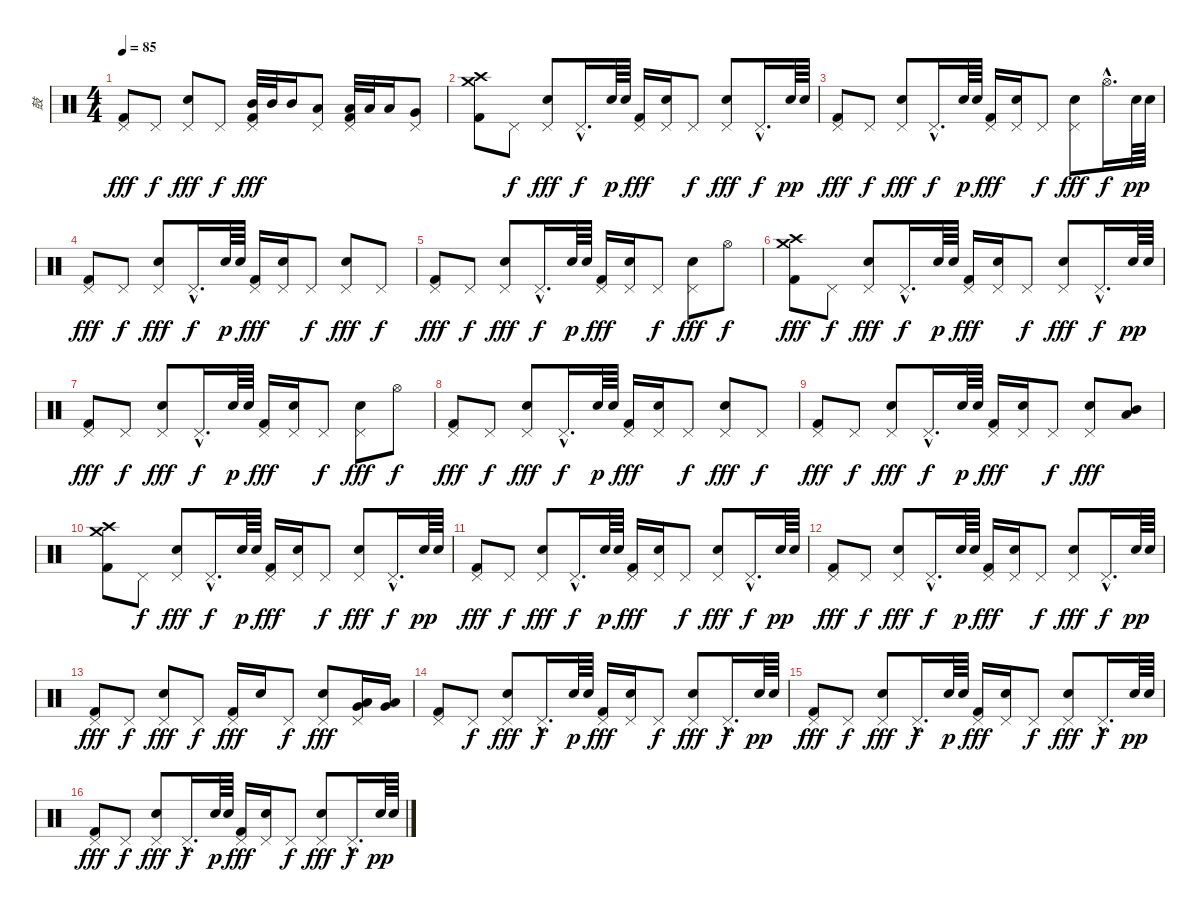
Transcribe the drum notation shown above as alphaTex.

\track ("鼓" "鼓") {instrument percussion}
\staff {score}
\articulation defaults
\ts (4 4)
\tempo 85
\clef neutral
\ks c
("Pedal Hi-Hat (hit)" "Kick (hit) 2").8{dy fff} "Pedal Hi-Hat (hit)".8{dy f} ("Pedal Hi-Hat (hit)" "Snare (hit) 2").8{dy fff} "Pedal Hi-Hat (hit)".8{dy f} ("Pedal Hi-Hat (hit)" "Mid Tom (hit)" "Kick (hit) 2").32{dy fff} "Mid Tom (hit)".32 "Mid Tom (hit)".16 ("Pedal Hi-Hat (hit)" "Low Tom (hit)").8 ("Pedal Hi-Hat (hit)" "Low Tom (hit)" "Kick (hit) 2").32 "Low Tom (hit)".32 "Low Tom (hit)".16 ("Pedal Hi-Hat (hit)" "Very Low Tom (hit)").8 |
("Crash high (hit)" "Crash medium (hit)" "Kick (hit) 2").8 "Pedal Hi-Hat (hit)".8{dy f} ("Pedal Hi-Hat (hit)" "Snare (hit) 2").8{dy fff} "Pedal Hi-Hat (hit)"{hac}.16{d dy f} "Snare (hit) 2".64{dy p} "Snare (hit) 2".64 ("Pedal Hi-Hat (hit)" "Kick (hit) 2").16{dy fff} ("Pedal Hi-Hat (hit)" "Snare (hit) 2").16 "Pedal Hi-Hat (hit)".8{dy f} ("Pedal Hi-Hat (hit)" "Snare (hit) 2").8{dy fff} "Pedal Hi-Hat (hit)"{hac}.16{d dy f} "Snare (hit) 2".64{dy pp} "Snare (hit) 2".64 |
("Pedal Hi-Hat (hit)" "Kick (hit) 2").8{dy fff} "Pedal Hi-Hat (hit)".8{dy f} ("Pedal Hi-Hat (hit)" "Snare (hit) 2").8{dy fff} "Pedal Hi-Hat (hit)"{hac}.16{d dy f} "Snare (hit) 2".64{dy p} "Snare (hit) 2".64 ("Pedal Hi-Hat (hit)" "Kick (hit) 2").16{dy fff} ("Pedal Hi-Hat (hit)" "Snare (hit) 2").16 "Pedal Hi-Hat (hit)".8{dy f} ("Pedal Hi-Hat (hit)" "Snare (hit) 2").8{dy fff} "Hi-Hat (open)"{hac}.16{d dy f} "Snare (hit) 2".64{dy pp} "Snare (hit) 2".64 |
("Pedal Hi-Hat (hit)" "Kick (hit) 2").8{dy fff} "Pedal Hi-Hat (hit)".8{dy f} ("Pedal Hi-Hat (hit)" "Snare (hit) 2").8{dy fff} "Pedal Hi-Hat (hit)"{hac}.16{d dy f} "Snare (hit) 2".64{dy p} "Snare (hit) 2".64 ("Pedal Hi-Hat (hit)" "Kick (hit) 2").16{dy fff} ("Pedal Hi-Hat (hit)" "Snare (hit) 2").16 "Pedal Hi-Hat (hit)".8{dy f} ("Pedal Hi-Hat (hit)" "Snare (hit) 2").8{dy fff} "Pedal Hi-Hat (hit)".8{dy f} |
("Pedal Hi-Hat (hit)" "Kick (hit) 2").8{dy fff} "Pedal Hi-Hat (hit)".8{dy f} ("Pedal Hi-Hat (hit)" "Snare (hit) 2").8{dy fff} "Pedal Hi-Hat (hit)"{hac}.16{d dy f} "Snare (hit) 2".64{dy p} "Snare (hit) 2".64 ("Pedal Hi-Hat (hit)" "Kick (hit) 2").16{dy fff} ("Pedal Hi-Hat (hit)" "Snare (hit) 2").16 "Pedal Hi-Hat (hit)".8{dy f} ("Pedal Hi-Hat (hit)" "Snare (hit) 2").8{dy fff} "Hi-Hat (open)".8{dy f} |
("Crash high (hit)" "Crash medium (hit)" "Kick (hit) 2").8{dy fff} "Pedal Hi-Hat (hit)".8{dy f} ("Pedal Hi-Hat (hit)" "Snare (hit) 2").8{dy fff} "Pedal Hi-Hat (hit)"{hac}.16{d dy f} "Snare (hit) 2".64{dy p} "Snare (hit) 2".64 ("Pedal Hi-Hat (hit)" "Kick (hit) 2").16{dy fff} ("Pedal Hi-Hat (hit)" "Snare (hit) 2").16 "Pedal Hi-Hat (hit)".8{dy f} ("Pedal Hi-Hat (hit)" "Snare (hit) 2").8{dy fff} "Pedal Hi-Hat (hit)"{hac}.16{d dy f} "Snare (hit) 2".64{dy pp} "Snare (hit) 2".64 |
("Pedal Hi-Hat (hit)" "Kick (hit) 2").8{dy fff} "Pedal Hi-Hat (hit)".8{dy f} ("Pedal Hi-Hat (hit)" "Snare (hit) 2").8{dy fff} "Pedal Hi-Hat (hit)"{hac}.16{d dy f} "Snare (hit) 2".64{dy p} "Snare (hit) 2".64 ("Pedal Hi-Hat (hit)" "Kick (hit) 2").16{dy fff} ("Pedal Hi-Hat (hit)" "Snare (hit) 2").16 "Pedal Hi-Hat (hit)".8{dy f} ("Pedal Hi-Hat (hit)" "Snare (hit) 2").8{dy fff} "Hi-Hat (open)".8{dy f} |
("Pedal Hi-Hat (hit)" "Kick (hit) 2").8{dy fff} "Pedal Hi-Hat (hit)".8{dy f} ("Pedal Hi-Hat (hit)" "Snare (hit) 2").8{dy fff} "Pedal Hi-Hat (hit)"{hac}.16{d dy f} "Snare (hit) 2".64{dy p} "Snare (hit) 2".64 ("Pedal Hi-Hat (hit)" "Kick (hit) 2").16{dy fff} ("Pedal Hi-Hat (hit)" "Snare (hit) 2").16 "Pedal Hi-Hat (hit)".8{dy f} ("Pedal Hi-Hat (hit)" "Snare (hit) 2").8{dy fff} "Pedal Hi-Hat (hit)".8{dy f} |
("Pedal Hi-Hat (hit)" "Kick (hit) 2").8{dy fff} "Pedal Hi-Hat (hit)".8{dy f} ("Pedal Hi-Hat (hit)" "Snare (hit) 2").8{dy fff} "Pedal Hi-Hat (hit)"{hac}.16{d dy f} "Snare (hit) 2".64{dy p} "Snare (hit) 2".64 ("Pedal Hi-Hat (hit)" "Kick (hit) 2").16{dy fff} ("Pedal Hi-Hat (hit)" "Snare (hit) 2").16 "Pedal Hi-Hat (hit)".8{dy f} ("Pedal Hi-Hat (hit)" "Snare (hit) 2").8{dy fff} ("Mid Tom (hit)" "Low Tom (hit)").8 |
("Crash high (hit)" "Crash medium (hit)" "Kick (hit) 2").8 "Pedal Hi-Hat (hit)".8{dy f} ("Pedal Hi-Hat (hit)" "Snare (hit) 2").8{dy fff} "Pedal Hi-Hat (hit)"{hac}.16{d dy f} "Snare (hit) 2".64{dy p} "Snare (hit) 2".64 ("Pedal Hi-Hat (hit)" "Kick (hit) 2").16{dy fff} ("Pedal Hi-Hat (hit)" "Snare (hit) 2").16 "Pedal Hi-Hat (hit)".8{dy f} ("Pedal Hi-Hat (hit)" "Snare (hit) 2").8{dy fff} "Pedal Hi-Hat (hit)"{hac}.16{d dy f} "Snare (hit) 2".64{dy pp} "Snare (hit) 2".64 |
("Pedal Hi-Hat (hit)" "Kick (hit) 2").8{dy fff} "Pedal Hi-Hat (hit)".8{dy f} ("Pedal Hi-Hat (hit)" "Snare (hit) 2").8{dy fff} "Pedal Hi-Hat (hit)"{hac}.16{d dy f} "Snare (hit) 2".64{dy p} "Snare (hit) 2".64 ("Pedal Hi-Hat (hit)" "Kick (hit) 2").16{dy fff} ("Pedal Hi-Hat (hit)" "Snare (hit) 2").16 "Pedal Hi-Hat (hit)".8{dy f} ("Pedal Hi-Hat (hit)" "Snare (hit) 2").8{dy fff} "Pedal Hi-Hat (hit)"{hac}.16{d dy f} "Snare (hit) 2".64{dy pp} "Snare (hit) 2".64 |
("Pedal Hi-Hat (hit)" "Kick (hit) 2").8{dy fff} "Pedal Hi-Hat (hit)".8{dy f} ("Pedal Hi-Hat (hit)" "Snare (hit) 2").8{dy fff} "Pedal Hi-Hat (hit)"{hac}.16{d dy f} "Snare (hit) 2".64{dy p} "Snare (hit) 2".64 ("Pedal Hi-Hat (hit)" "Kick (hit) 2").16{dy fff} ("Pedal Hi-Hat (hit)" "Snare (hit) 2").16 "Pedal Hi-Hat (hit)".8{dy f} ("Pedal Hi-Hat (hit)" "Snare (hit) 2").8{dy fff} "Pedal Hi-Hat (hit)"{hac}.16{d dy f} "Snare (hit) 2".64{dy pp} "Snare (hit) 2".64 |
("Pedal Hi-Hat (hit)" "Kick (hit) 2").8{dy fff} "Pedal Hi-Hat (hit)".8{dy f} ("Pedal Hi-Hat (hit)" "Snare (hit) 2").8{dy fff} "Pedal Hi-Hat (hit)".8{dy f} ("Pedal Hi-Hat (hit)" "Kick (hit) 2").16{dy fff} "Snare (hit) 2".16 "Pedal Hi-Hat (hit)".8{dy f} ("Pedal Hi-Hat (hit)" "Snare (hit) 2").8{dy fff} ("Pedal Hi-Hat (hit)" "Low Tom (hit)" "Very Low Tom (hit)").16 ("Low Tom (hit)" "Very Low Tom (hit)").16 |
("Pedal Hi-Hat (hit)" "Kick (hit) 2").8 "Pedal Hi-Hat (hit)".8{dy f} ("Pedal Hi-Hat (hit)" "Snare (hit) 2").8{dy fff} "Pedal Hi-Hat (hit)"{hac}.16{d dy f} "Snare (hit) 2".64{dy p} "Snare (hit) 2".64 ("Pedal Hi-Hat (hit)" "Kick (hit) 2").16{dy fff} ("Pedal Hi-Hat (hit)" "Snare (hit) 2").16 "Pedal Hi-Hat (hit)".8{dy f} ("Pedal Hi-Hat (hit)" "Snare (hit) 2").8{dy fff} "Pedal Hi-Hat (hit)"{hac}.16{d dy f} "Snare (hit) 2".64{dy pp} "Snare (hit) 2".64 |
("Pedal Hi-Hat (hit)" "Kick (hit) 2").8{dy fff} "Pedal Hi-Hat (hit)".8{dy f} ("Pedal Hi-Hat (hit)" "Snare (hit) 2").8{dy fff} "Pedal Hi-Hat (hit)"{hac}.16{d dy f} "Snare (hit) 2".64{dy p} "Snare (hit) 2".64 ("Pedal Hi-Hat (hit)" "Kick (hit) 2").16{dy fff} ("Pedal Hi-Hat (hit)" "Snare (hit) 2").16 "Pedal Hi-Hat (hit)".8{dy f} ("Pedal Hi-Hat (hit)" "Snare (hit) 2").8{dy fff} "Pedal Hi-Hat (hit)"{hac}.16{d dy f} "Snare (hit) 2".64{dy pp} "Snare (hit) 2".64 |
("Pedal Hi-Hat (hit)" "Kick (hit) 2").8{dy fff} "Pedal Hi-Hat (hit)".8{dy f} ("Pedal Hi-Hat (hit)" "Snare (hit) 2").8{dy fff} "Pedal Hi-Hat (hit)"{hac}.16{d dy f} "Snare (hit) 2".64{dy p} "Snare (hit) 2".64 ("Pedal Hi-Hat (hit)" "Kick (hit) 2").16{dy fff} ("Pedal Hi-Hat (hit)" "Snare (hit) 2").16 "Pedal Hi-Hat (hit)".8{dy f} ("Pedal Hi-Hat (hit)" "Snare (hit) 2").8{dy fff} "Pedal Hi-Hat (hit)"{hac}.16{d dy f} "Snare (hit) 2".64{dy pp} "Snare (hit) 2".64
